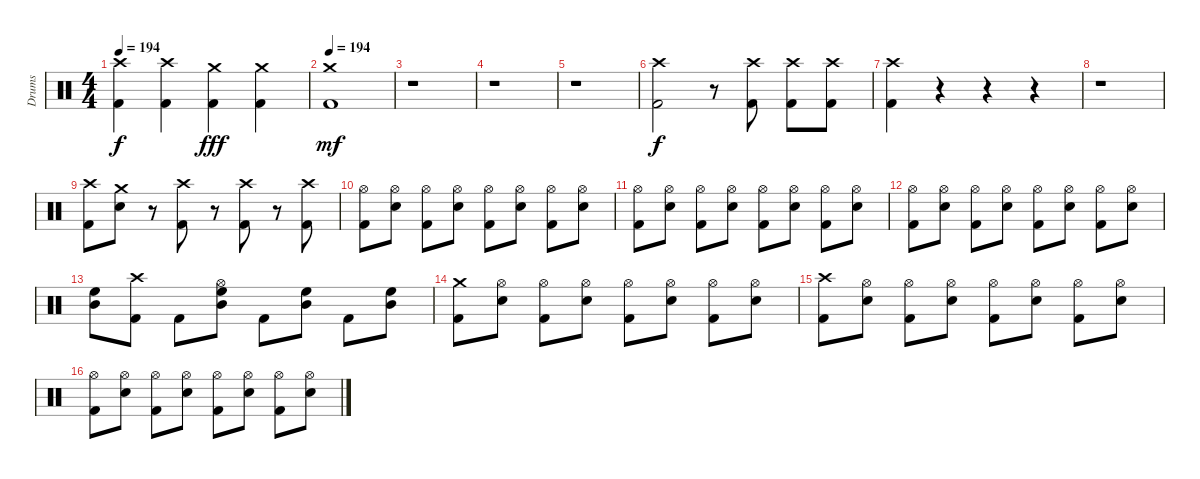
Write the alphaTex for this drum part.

\track ("Drums" "Drums") {instrument percussion}
\staff {score}
\articulation defaults
\ts (4 4)
\tempo 194
\tempo 76
\tempo 194
\clef neutral
\ks c
("Crash high (hit)" "Kick (hit) 2").4{dy f} ("Crash high (hit)" "Kick (hit) 2").4 ("Crash medium (hit)" "Kick (hit) 2").4{dy fff} ("Crash medium (hit)" "Kick (hit) 2").4 |
\tempo 194
("Crash medium (hit)" "Kick (hit) 2").1{dy mf} |
r.1 |
r.1 |
r.1 |
("Crash high (hit)" "Kick (hit) 2").2{dy f} r.8 ("Crash high (hit)" "Kick (hit) 2").8 ("Crash high (hit)" "Kick (hit) 2").8 ("Crash high (hit)" "Kick (hit) 2").8 |
("Crash high (hit)" "Kick (hit) 2").4 r.4 r.4 r.4 |
r.1 |
("Crash high (hit)" "Kick (hit) 2").8 ("Crash medium (hit)" "Snare (hit) 2").8 r.8 ("Crash high (hit)" "Kick (hit) 2").8 r.8 ("Crash high (hit)" "Kick (hit) 2").8 r.8 ("Crash high (hit)" "Kick (hit) 2").8 |
("Hi-Hat (open)" "Kick (hit) 2").8 ("Hi-Hat (open)" "Snare (hit) 2").8 ("Hi-Hat (open)" "Kick (hit) 2").8 ("Hi-Hat (open)" "Snare (hit) 2").8 ("Hi-Hat (open)" "Kick (hit) 2").8 ("Hi-Hat (open)" "Snare (hit) 2").8 ("Hi-Hat (open)" "Kick (hit) 2").8 ("Hi-Hat (open)" "Snare (hit) 2").8 |
("Hi-Hat (open)" "Kick (hit) 2").8 ("Hi-Hat (open)" "Snare (hit) 2").8 ("Hi-Hat (open)" "Kick (hit) 2").8 ("Hi-Hat (open)" "Snare (hit) 2").8 ("Hi-Hat (open)" "Kick (hit) 2").8 ("Hi-Hat (open)" "Snare (hit) 2").8 ("Hi-Hat (open)" "Kick (hit) 2").8 ("Hi-Hat (open)" "Snare (hit) 2").8 |
("Hi-Hat (open)" "Kick (hit) 2").8 ("Hi-Hat (open)" "Snare (hit) 2").8 ("Hi-Hat (open)" "Kick (hit) 2").8 ("Hi-Hat (open)" "Snare (hit) 2").8 ("Hi-Hat (open)" "Kick (hit) 2").8 ("Hi-Hat (open)" "Snare (hit) 2").8 ("Hi-Hat (open)" "Kick (hit) 2").8 ("Hi-Hat (open)" "Snare (hit) 2").8 |
("Mid Tom (hit)" "High Floor Tom (hit)").8 ("Crash high (hit)" "Kick (hit) 2").8 "Kick (hit) 2".8 ("Hi-Hat (open)" "Mid Tom (hit)" "High Floor Tom (hit)").8 "Kick (hit) 2".8 ("Mid Tom (hit)" "High Floor Tom (hit)").8 "Kick (hit) 2".8 ("Mid Tom (hit)" "High Floor Tom (hit)").8 |
("Crash medium (hit)" "Kick (hit) 2").8 ("Hi-Hat (open)" "Snare (hit) 2").8 ("Hi-Hat (open)" "Kick (hit) 2").8 ("Hi-Hat (open)" "Snare (hit) 2").8 ("Hi-Hat (open)" "Kick (hit) 2").8 ("Hi-Hat (open)" "Snare (hit) 2").8 ("Hi-Hat (open)" "Kick (hit) 2").8 ("Hi-Hat (open)" "Snare (hit) 2").8 |
("Crash high (hit)" "Kick (hit) 2").8 ("Hi-Hat (open)" "Snare (hit) 2").8 ("Hi-Hat (open)" "Kick (hit) 2").8 ("Hi-Hat (open)" "Snare (hit) 2").8 ("Hi-Hat (open)" "Kick (hit) 2").8 ("Hi-Hat (open)" "Snare (hit) 2").8 ("Hi-Hat (open)" "Kick (hit) 2").8 ("Hi-Hat (open)" "Snare (hit) 2").8 |
("Hi-Hat (open)" "Kick (hit) 2").8 ("Hi-Hat (open)" "Snare (hit) 2").8 ("Hi-Hat (open)" "Kick (hit) 2").8 ("Hi-Hat (open)" "Snare (hit) 2").8 ("Hi-Hat (open)" "Kick (hit) 2").8 ("Hi-Hat (open)" "Snare (hit) 2").8 ("Hi-Hat (open)" "Kick (hit) 2").8 ("Hi-Hat (open)" "Snare (hit) 2").8
